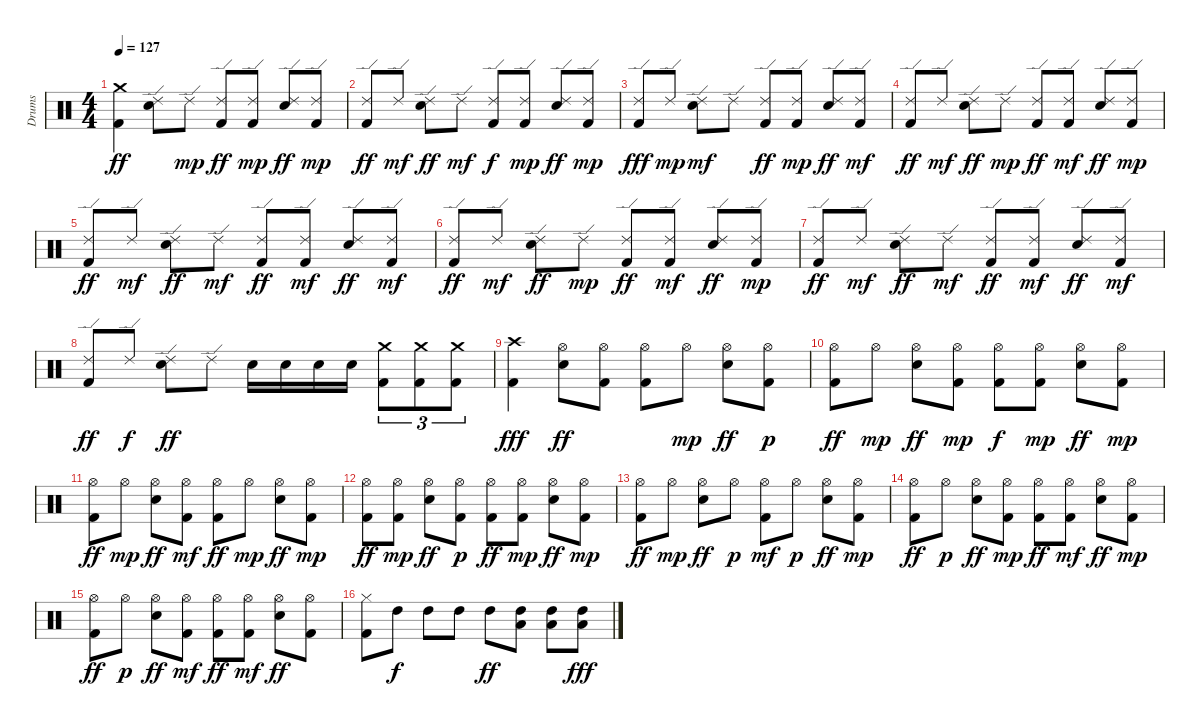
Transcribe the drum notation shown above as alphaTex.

\track ("Drums" "Drums") {instrument percussion}
\staff {score}
\articulation defaults
\ts (4 4)
\tempo 127
\clef neutral
\ks c
("Kick (hit) 2" "Crash medium (hit)").4{dy ff} ("Ride (edge) 2" "Electric Snare (hit)").8 "Ride (edge) 2".8{dy mp} ("Kick (hit) 2" "Ride (edge) 2").8{dy ff} ("Kick (hit) 2" "Ride (edge) 2").8{dy mp} ("Electric Snare (hit)" "Ride (edge) 2").8{dy ff} ("Kick (hit) 2" "Ride (edge) 2").8{dy mp} |
("Kick (hit) 2" "Ride (edge) 2").8{dy ff} "Ride (edge) 2".8{dy mf} ("Ride (edge) 2" "Electric Snare (hit)").8{dy ff} "Ride (edge) 2".8{dy mf} ("Kick (hit) 2" "Ride (edge) 2").8{dy f} ("Kick (hit) 2" "Ride (edge) 2").8{dy mp} ("Electric Snare (hit)" "Ride (edge) 2").8{dy ff} ("Kick (hit) 2" "Ride (edge) 2").8{dy mp} |
("Kick (hit) 2" "Ride (edge) 2").8{dy fff} "Ride (edge) 2".8{dy mp} ("Electric Snare (hit)" "Ride (edge) 2").8{dy mf} "Ride (edge) 2".8 ("Kick (hit) 2" "Ride (edge) 2").8{dy ff} ("Kick (hit) 2" "Ride (edge) 2").8{dy mp} ("Electric Snare (hit)" "Ride (edge) 2").8{dy ff} ("Kick (hit) 2" "Ride (edge) 2").8{dy mf} |
("Kick (hit) 2" "Ride (edge) 2").8{dy ff} "Ride (edge) 2".8{dy mf} ("Electric Snare (hit)" "Ride (edge) 2").8{dy ff} "Ride (edge) 2".8{dy mp} ("Kick (hit) 2" "Ride (edge) 2").8{dy ff} ("Kick (hit) 2" "Ride (edge) 2").8{dy mf} ("Electric Snare (hit)" "Ride (edge) 2").8{dy ff} ("Kick (hit) 2" "Ride (edge) 2").8{dy mp} |
("Kick (hit) 2" "Ride (edge) 2").8{dy ff} "Ride (edge) 2".8{dy mf} ("Ride (edge) 2" "Electric Snare (hit)").8{dy ff} "Ride (edge) 2".8{dy mf} ("Ride (edge) 2" "Kick (hit) 2").8{dy ff} ("Ride (edge) 2" "Kick (hit) 2").8{dy mf} ("Ride (edge) 2" "Electric Snare (hit)").8{dy ff} ("Kick (hit) 2" "Ride (edge) 2").8{dy mf} |
("Kick (hit) 2" "Ride (edge) 2").8{dy ff} "Ride (edge) 2".8{dy mf} ("Electric Snare (hit)" "Ride (edge) 2").8{dy ff} "Ride (edge) 2".8{dy mp} ("Kick (hit) 2" "Ride (edge) 2").8{dy ff} ("Kick (hit) 2" "Ride (edge) 2").8{dy mf} ("Electric Snare (hit)" "Ride (edge) 2").8{dy ff} ("Kick (hit) 2" "Ride (edge) 2").8{dy mp} |
("Kick (hit) 2" "Ride (edge) 2").8{dy ff} "Ride (edge) 2".8{dy mf} ("Ride (edge) 2" "Electric Snare (hit)").8{dy ff} "Ride (edge) 2".8{dy mf} ("Ride (edge) 2" "Kick (hit) 2").8{dy ff} ("Ride (edge) 2" "Kick (hit) 2").8{dy mf} ("Ride (edge) 2" "Electric Snare (hit)").8{dy ff} ("Kick (hit) 2" "Ride (edge) 2").8{dy mf} |
("Kick (hit) 2" "Ride (edge) 2").8{dy ff} "Ride (edge) 2".8{dy f} ("Electric Snare (hit)" "Ride (edge) 2").8{dy ff} "Ride (edge) 2".8 "Electric Snare (hit)".16 "Electric Snare (hit)".16 "Electric Snare (hit)".16 "Electric Snare (hit)".16 ("Crash medium (hit)" "Kick (hit) 2").8{tu (3 2)} ("Kick (hit) 2" "Crash medium (hit)").8{tu (3 2)} ("Kick (hit) 2" "Crash medium (hit)").8{tu (3 2)} |
("Kick (hit) 2" "Crash high (hit)").4{dy fff} ("Hi-Hat (open)" "Electric Snare (hit)").8{dy ff} ("Hi-Hat (open)" "Kick (hit) 2").8 ("Hi-Hat (open)" "Kick (hit) 2").8 "Hi-Hat (open)".8{dy mp} ("Hi-Hat (open)" "Electric Snare (hit)").8{dy ff} ("Hi-Hat (open)" "Kick (hit) 2").8{dy p} |
("Hi-Hat (open)" "Kick (hit) 2").8{dy ff} "Hi-Hat (open)".8{dy mp} ("Electric Snare (hit)" "Hi-Hat (open)").8{dy ff} ("Hi-Hat (open)" "Kick (hit) 2").8{dy mp} ("Kick (hit) 2" "Hi-Hat (open)").8{dy f} ("Kick (hit) 2" "Hi-Hat (open)").8{dy mp} ("Electric Snare (hit)" "Hi-Hat (open)").8{dy ff} ("Kick (hit) 2" "Hi-Hat (open)").8{dy mp} |
("Kick (hit) 2" "Hi-Hat (open)").8{dy ff} "Hi-Hat (open)".8{dy mp} ("Electric Snare (hit)" "Hi-Hat (open)").8{dy ff} ("Hi-Hat (open)" "Kick (hit) 2").8{dy mf} ("Kick (hit) 2" "Hi-Hat (open)").8{dy ff} "Hi-Hat (open)".8{dy mp} ("Electric Snare (hit)" "Hi-Hat (open)").8{dy ff} ("Kick (hit) 2" "Hi-Hat (open)").8{dy mp} |
("Kick (hit) 2" "Hi-Hat (open)").8{dy ff} ("Kick (hit) 2" "Hi-Hat (open)").8{dy mp} ("Electric Snare (hit)" "Hi-Hat (open)").8{dy ff} ("Kick (hit) 2" "Hi-Hat (open)").8{dy p} ("Kick (hit) 2" "Hi-Hat (open)").8{dy ff} ("Kick (hit) 2" "Hi-Hat (open)").8{dy mp} ("Electric Snare (hit)" "Hi-Hat (open)").8{dy ff} ("Kick (hit) 2" "Hi-Hat (open)").8{dy mp} |
("Kick (hit) 2" "Hi-Hat (open)").8{dy ff} "Hi-Hat (open)".8{dy mp} ("Electric Snare (hit)" "Hi-Hat (open)").8{dy ff} "Hi-Hat (open)".8{dy p} ("Kick (hit) 2" "Hi-Hat (open)").8{dy mf} "Hi-Hat (open)".8{dy p} ("Electric Snare (hit)" "Hi-Hat (open)").8{dy ff} ("Kick (hit) 2" "Hi-Hat (open)").8{dy mp} |
("Kick (hit) 2" "Hi-Hat (open)").8{dy ff} "Hi-Hat (open)".8{dy p} ("Electric Snare (hit)" "Hi-Hat (open)").8{dy ff} ("Kick (hit) 2" "Hi-Hat (open)").8{dy mp} ("Kick (hit) 2" "Hi-Hat (open)").8{dy ff} ("Kick (hit) 2" "Hi-Hat (open)").8{dy mf} ("Hi-Hat (open)" "Electric Snare (hit)").8{dy ff} ("Kick (hit) 2" "Hi-Hat (open)").8{dy mp} |
("Kick (hit) 2" "Hi-Hat (open)").8{dy ff} "Hi-Hat (open)".8{dy p} ("Hi-Hat (open)" "Electric Snare (hit)").8{dy ff} ("Hi-Hat (open)" "Kick (hit) 2").8{dy mf} ("Kick (hit) 2" "Hi-Hat (open)").8{dy ff} ("Kick (hit) 2" "Hi-Hat (open)").8{dy mf} ("Electric Snare (hit)" "Hi-Hat (open)").8{dy ff} ("Kick (hit) 2" "Hi-Hat (open)").8 |
("Kick (hit) 2" "Hi-Hat (closed)").8 "High Tom (hit)".8{dy f} "High Tom (hit)".8 "High Tom (hit)".8 "High Tom (hit)".8{dy ff} ("High Tom (hit)" "Low Tom (hit)").8 ("Low Tom (hit)" "High Tom (hit)").8 ("Low Floor Tom (hit)" "High Tom (hit)").8{dy fff}
